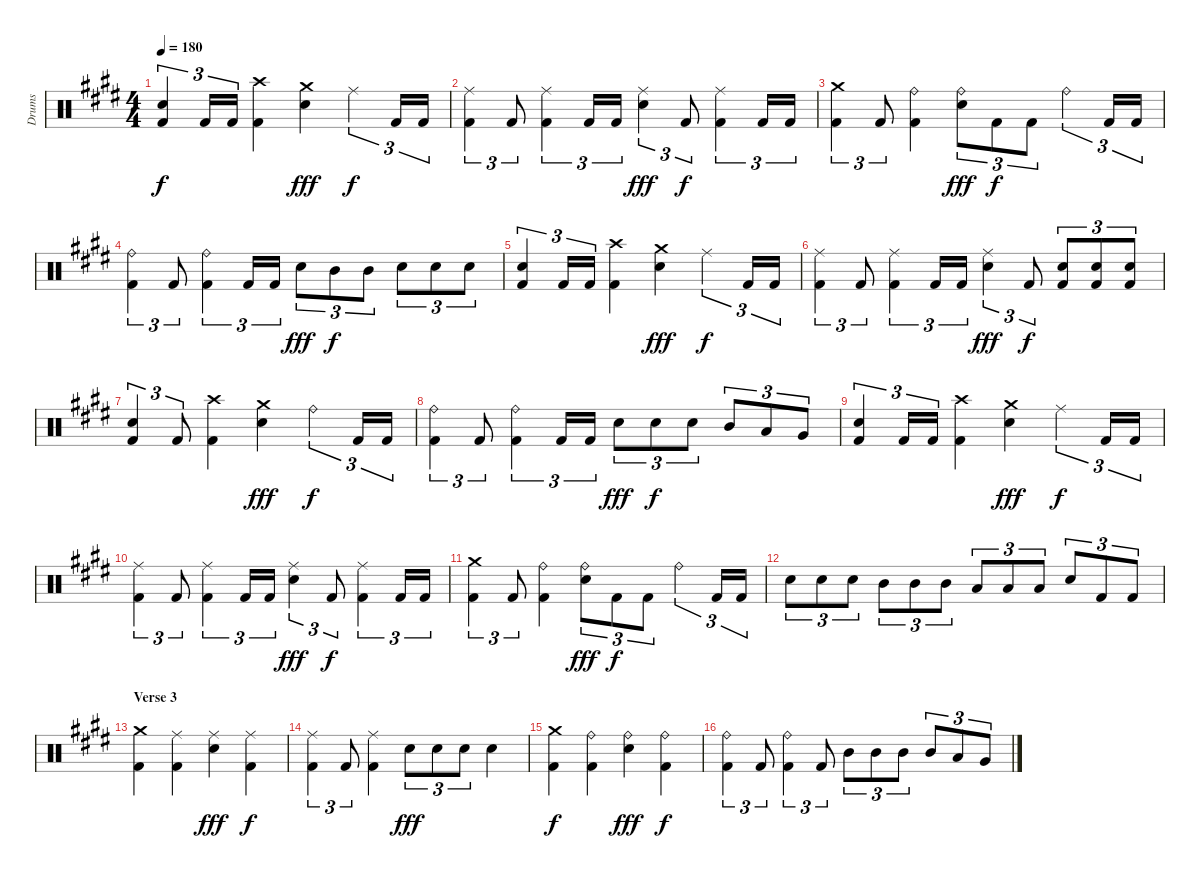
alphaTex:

\track ("Drums" "Drums") {instrument percussion}
\staff {score}
\articulation defaults
\ts (4 4)
\tempo 180
\clef neutral
\ks c#minor
("Snare (hit) 2" "Kick (hit) 2").4{tu (3 2) dy f} "Kick (hit) 2".16{tu (3 2)} "Kick (hit) 2".16{tu (3 2)} ("Crash high (hit)" "Kick (hit) 2").4 ("Crash medium (hit)" "Snare (hit) 2").4{dy fff} "Ride (middle)".4{tu (3 2) dy f} "Kick (hit) 2".16{tu (3 2)} "Kick (hit) 2".16{tu (3 2)} |
("Ride (middle)" "Kick (hit) 2").4{tu (3 2)} "Kick (hit) 2".8{tu (3 2)} ("Ride (middle)" "Kick (hit) 2").4{tu (3 2)} "Kick (hit) 2".16{tu (3 2)} "Kick (hit) 2".16{tu (3 2)} ("Ride (middle)" "Snare (hit) 2").4{tu (3 2) dy fff} "Kick (hit) 2".8{tu (3 2) dy f} ("Ride (middle)" "Kick (hit) 2").4{tu (3 2)} "Kick (hit) 2".16{tu (3 2)} "Kick (hit) 2".16{tu (3 2)} |
("Crash medium (hit)" "Kick (hit) 2").4{tu (3 2)} "Kick (hit) 2".8{tu (3 2)} ("Ride (bell)" "Kick (hit) 2").4 ("Ride (bell)" "Snare (hit) 2").8{tu (3 2) dy fff} "Kick (hit) 2".8{tu (3 2) dy f} "Kick (hit) 2".8{tu (3 2)} "Ride (bell)".4{tu (3 2)} "Kick (hit) 2".16{tu (3 2)} "Kick (hit) 2".16{tu (3 2)} |
("Ride (bell)" "Kick (hit) 2").4{tu (3 2)} "Kick (hit) 2".8{tu (3 2)} ("Ride (bell)" "Kick (hit) 2").4{tu (3 2)} "Kick (hit) 2".16{tu (3 2)} "Kick (hit) 2".16{tu (3 2)} "Snare (hit) 2".8{tu (3 2) dy fff} "Mid Tom (hit)".8{tu (3 2) dy f} "Mid Tom (hit)".8{tu (3 2)} "Snare (hit) 2".8{tu (3 2)} "Snare (hit) 2".8{tu (3 2)} "Snare (hit) 2".8{tu (3 2)} |
("Snare (hit) 2" "Kick (hit) 2").4{tu (3 2)} "Kick (hit) 2".16{tu (3 2)} "Kick (hit) 2".16{tu (3 2)} ("Crash high (hit)" "Kick (hit) 2").4 ("Crash medium (hit)" "Snare (hit) 2").4{dy fff} "Ride (middle)".4{tu (3 2) dy f} "Kick (hit) 2".16{tu (3 2)} "Kick (hit) 2".16{tu (3 2)} |
("Ride (middle)" "Kick (hit) 2").4{tu (3 2)} "Kick (hit) 2".8{tu (3 2)} ("Ride (middle)" "Kick (hit) 2").4{tu (3 2)} "Kick (hit) 2".16{tu (3 2)} "Kick (hit) 2".16{tu (3 2)} ("Ride (middle)" "Snare (hit) 2").4{tu (3 2) dy fff} "Kick (hit) 2".8{tu (3 2) dy f} ("Snare (hit) 2" "Kick (hit) 2").8{tu (3 2)} ("Snare (hit) 2" "Kick (hit) 2").8{tu (3 2)} ("Snare (hit) 2" "Kick (hit) 2").8{tu (3 2)} |
("Snare (hit) 2" "Kick (hit) 2").4{tu (3 2)} "Kick (hit) 2".8{tu (3 2)} ("Crash high (hit)" "Kick (hit) 2").4 ("Crash medium (hit)" "Snare (hit) 2").4{dy fff} "Ride (bell)".4{tu (3 2) dy f} "Kick (hit) 2".16{tu (3 2)} "Kick (hit) 2".16{tu (3 2)} |
("Ride (bell)" "Kick (hit) 2").4{tu (3 2)} "Kick (hit) 2".8{tu (3 2)} ("Ride (bell)" "Kick (hit) 2").4{tu (3 2)} "Kick (hit) 2".16{tu (3 2)} "Kick (hit) 2".16{tu (3 2)} "Snare (hit) 2".8{tu (3 2) dy fff} "Snare (hit) 2".8{tu (3 2) dy f} "Snare (hit) 2".8{tu (3 2)} "Mid Tom (hit)".8{tu (3 2)} "Low Tom (hit)".8{tu (3 2)} "Very Low Tom (hit)".8{tu (3 2)} |
("Snare (hit) 2" "Kick (hit) 2").4{tu (3 2)} "Kick (hit) 2".16{tu (3 2)} "Kick (hit) 2".16{tu (3 2)} ("Crash high (hit)" "Kick (hit) 2").4 ("Crash medium (hit)" "Snare (hit) 2").4{dy fff} "Ride (middle)".4{tu (3 2) dy f} "Kick (hit) 2".16{tu (3 2)} "Kick (hit) 2".16{tu (3 2)} |
("Ride (middle)" "Kick (hit) 2").4{tu (3 2)} "Kick (hit) 2".8{tu (3 2)} ("Ride (middle)" "Kick (hit) 2").4{tu (3 2)} "Kick (hit) 2".16{tu (3 2)} "Kick (hit) 2".16{tu (3 2)} ("Ride (middle)" "Snare (hit) 2").4{tu (3 2) dy fff} "Kick (hit) 2".8{tu (3 2) dy f} ("Ride (middle)" "Kick (hit) 2").4{tu (3 2)} "Kick (hit) 2".16{tu (3 2)} "Kick (hit) 2".16{tu (3 2)} |
("Crash medium (hit)" "Kick (hit) 2").4{tu (3 2)} "Kick (hit) 2".8{tu (3 2)} ("Ride (bell)" "Kick (hit) 2").4 ("Ride (bell)" "Snare (hit) 2").8{tu (3 2) dy fff} "Kick (hit) 2".8{tu (3 2) dy f} "Kick (hit) 2".8{tu (3 2)} "Ride (bell)".4{tu (3 2)} "Kick (hit) 2".16{tu (3 2)} "Kick (hit) 2".16{tu (3 2)} |
"Snare (hit) 2".8{tu (3 2)} "Snare (hit) 2".8{tu (3 2)} "Snare (hit) 2".8{tu (3 2)} "Mid Tom (hit)".8{tu (3 2)} "Mid Tom (hit)".8{tu (3 2)} "Mid Tom (hit)".8{tu (3 2)} "Low Tom (hit)".8{tu (3 2)} "Low Tom (hit)".8{tu (3 2)} "Low Tom (hit)".8{tu (3 2)} "Snare (hit) 2".8{tu (3 2)} "Kick (hit) 2".8{tu (3 2)} "Kick (hit) 2".8{tu (3 2)} |
\section ("" "Verse 3")
("Crash medium (hit)" "Kick (hit) 2").4 ("Ride (middle)" "Kick (hit) 2").4 ("Ride (middle)" "Snare (hit) 2").4{dy fff} ("Ride (middle)" "Kick (hit) 2").4{dy f} |
("Ride (middle)" "Kick (hit) 2").4{tu (3 2)} "Kick (hit) 2".8{tu (3 2)} ("Ride (middle)" "Kick (hit) 2").4 "Snare (hit) 2".8{tu (3 2) dy fff} "Snare (hit) 2".8{tu (3 2)} "Snare (hit) 2".8{tu (3 2)} "Snare (hit) 2".4 |
("Crash medium (hit)" "Kick (hit) 2").4{dy f} ("Ride (bell)" "Kick (hit) 2").4 ("Ride (bell)" "Snare (hit) 2").4{dy fff} ("Ride (bell)" "Kick (hit) 2").4{dy f} |
("Ride (bell)" "Kick (hit) 2").4{tu (3 2)} "Kick (hit) 2".8{tu (3 2)} ("Ride (bell)" "Kick (hit) 2").4{tu (3 2)} "Kick (hit) 2".8{tu (3 2)} "Mid Tom (hit)".8{tu (3 2)} "Mid Tom (hit)".8{tu (3 2)} "Mid Tom (hit)".8{tu (3 2)} "Mid Tom (hit)".8{tu (3 2)} "Low Tom (hit)".8{tu (3 2)} "Very Low Tom (hit)".8{tu (3 2)}
